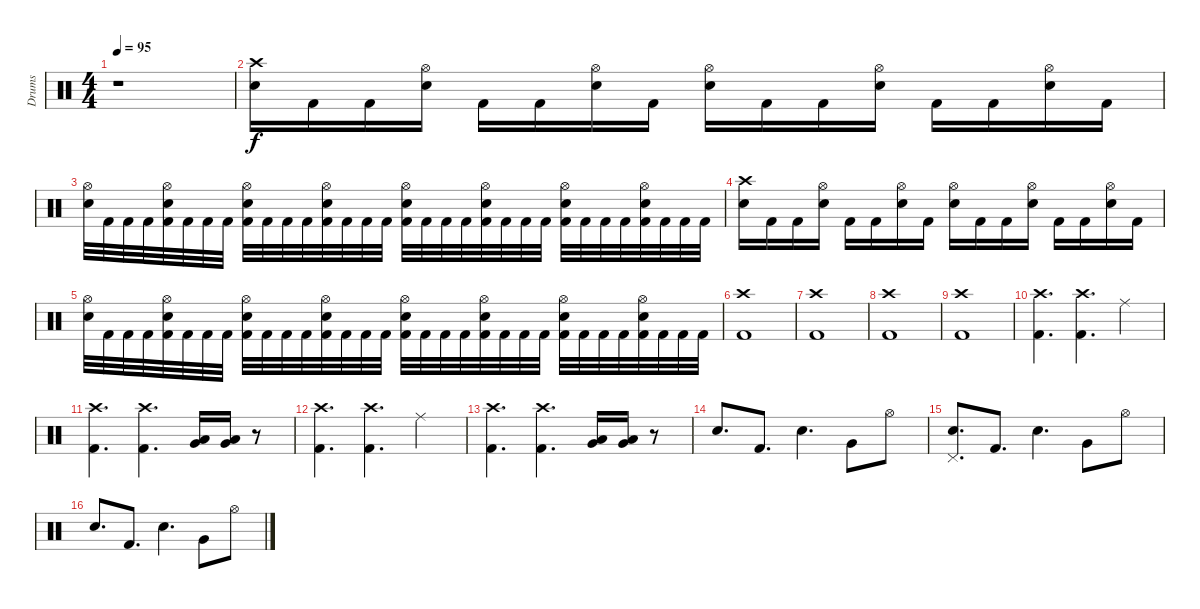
\track ("Drums" "Drums") {instrument percussion}
\staff {score}
\articulation defaults
\ts (4 4)
\tempo 95
\clef neutral
\ks c
r.1{dy f} |
("Crash high (hit)" "Electric Snare (hit)").16 "Kick (hit) 2".16 "Kick (hit) 2".16 ("Hi-Hat (open)" "Electric Snare (hit)").16 "Kick (hit) 2".16 "Kick (hit) 2".16 ("Hi-Hat (open)" "Electric Snare (hit)").16 "Kick (hit) 2".16 ("Hi-Hat (open)" "Electric Snare (hit)").16 "Kick (hit) 2".16 "Kick (hit) 2".16 ("Hi-Hat (open)" "Electric Snare (hit)").16 "Kick (hit) 2".16 "Kick (hit) 2".16 ("Hi-Hat (open)" "Electric Snare (hit)").16 "Kick (hit) 2".16 |
("Hi-Hat (open)" "Electric Snare (hit)").32 "Kick (hit) 2".32 "Kick (hit) 2".32 "Kick (hit) 2".32 ("Hi-Hat (open)" "Electric Snare (hit)" "Kick (hit) 2").32 "Kick (hit) 2".32 "Kick (hit) 2".32 "Kick (hit) 2".32 ("Hi-Hat (open)" "Electric Snare (hit)" "Kick (hit) 2").32 "Kick (hit) 2".32 "Kick (hit) 2".32 "Kick (hit) 2".32 ("Hi-Hat (open)" "Electric Snare (hit)" "Kick (hit) 2").32 "Kick (hit) 2".32 "Kick (hit) 2".32 "Kick (hit) 2".32 ("Hi-Hat (open)" "Electric Snare (hit)" "Kick (hit) 2").32 "Kick (hit) 2".32 "Kick (hit) 2".32 "Kick (hit) 2".32 ("Hi-Hat (open)" "Electric Snare (hit)" "Kick (hit) 2").32 "Kick (hit) 2".32 "Kick (hit) 2".32 "Kick (hit) 2".32 ("Hi-Hat (open)" "Electric Snare (hit)" "Kick (hit) 2").32 "Kick (hit) 2".32 "Kick (hit) 2".32 "Kick (hit) 2".32 ("Hi-Hat (open)" "Electric Snare (hit)" "Kick (hit) 2").32 "Kick (hit) 2".32 "Kick (hit) 2".32 "Kick (hit) 2".32 |
("Crash high (hit)" "Electric Snare (hit)").16 "Kick (hit) 2".16 "Kick (hit) 2".16 ("Hi-Hat (open)" "Electric Snare (hit)").16 "Kick (hit) 2".16 "Kick (hit) 2".16 ("Hi-Hat (open)" "Electric Snare (hit)").16 "Kick (hit) 2".16 ("Hi-Hat (open)" "Electric Snare (hit)").16 "Kick (hit) 2".16 "Kick (hit) 2".16 ("Hi-Hat (open)" "Electric Snare (hit)").16 "Kick (hit) 2".16 "Kick (hit) 2".16 ("Hi-Hat (open)" "Electric Snare (hit)").16 "Kick (hit) 2".16 |
("Hi-Hat (open)" "Electric Snare (hit)").32 "Kick (hit) 2".32 "Kick (hit) 2".32 "Kick (hit) 2".32 ("Hi-Hat (open)" "Electric Snare (hit)" "Kick (hit) 2").32 "Kick (hit) 2".32 "Kick (hit) 2".32 "Kick (hit) 2".32 ("Hi-Hat (open)" "Electric Snare (hit)" "Kick (hit) 2").32 "Kick (hit) 2".32 "Kick (hit) 2".32 "Kick (hit) 2".32 ("Hi-Hat (open)" "Electric Snare (hit)" "Kick (hit) 2").32 "Kick (hit) 2".32 "Kick (hit) 2".32 "Kick (hit) 2".32 ("Hi-Hat (open)" "Electric Snare (hit)" "Kick (hit) 2").32 "Kick (hit) 2".32 "Kick (hit) 2".32 "Kick (hit) 2".32 ("Hi-Hat (open)" "Electric Snare (hit)" "Kick (hit) 2").32 "Kick (hit) 2".32 "Kick (hit) 2".32 "Kick (hit) 2".32 ("Hi-Hat (open)" "Electric Snare (hit)" "Kick (hit) 2").32 "Kick (hit) 2".32 "Kick (hit) 2".32 "Kick (hit) 2".32 ("Hi-Hat (open)" "Electric Snare (hit)" "Kick (hit) 2").32 "Kick (hit) 2".32 "Kick (hit) 2".32 "Kick (hit) 2".32 |
("Crash high (hit)" "Kick (hit) 2").1 |
("Crash high (hit)" "Kick (hit) 2").1 |
("Crash high (hit)" "Kick (hit) 2").1 |
("Crash high (hit)" "Kick (hit) 2").1 |
("Crash high (hit)" "Kick (hit) 2").4{d} ("Crash high (hit)" "Kick (hit) 2").4{d} "Ride (middle)".4 |
("Crash high (hit)" "Kick (hit) 2").4{d} ("Crash high (hit)" "Kick (hit) 2").4{d} ("Very Low Tom (hit)" "Low Tom (hit)").16 ("Very Low Tom (hit)" "Low Tom (hit)").16 r.8 |
("Crash high (hit)" "Kick (hit) 2").4{d} ("Crash high (hit)" "Kick (hit) 2").4{d} "Ride (middle)".4 |
("Crash high (hit)" "Kick (hit) 2").4{d} ("Crash high (hit)" "Kick (hit) 2").4{d} ("Very Low Tom (hit)" "Low Tom (hit)").16 ("Very Low Tom (hit)" "Low Tom (hit)").16 r.8 |
"Electric Snare (hit)".8{d} "Kick (hit) 2".8{d} "Electric Snare (hit)".4{d} "Very Low Tom (hit)".8 "Hi-Hat (open)".8 |
("Pedal Hi-Hat (hit)" "Electric Snare (hit)").8{d} "Kick (hit) 2".8{d} "Electric Snare (hit)".4{d} "Very Low Tom (hit)".8 "Hi-Hat (open)".8 |
"Electric Snare (hit)".8{d} "Kick (hit) 2".8{d} "Electric Snare (hit)".4{d} "Very Low Tom (hit)".8 "Hi-Hat (open)".8
